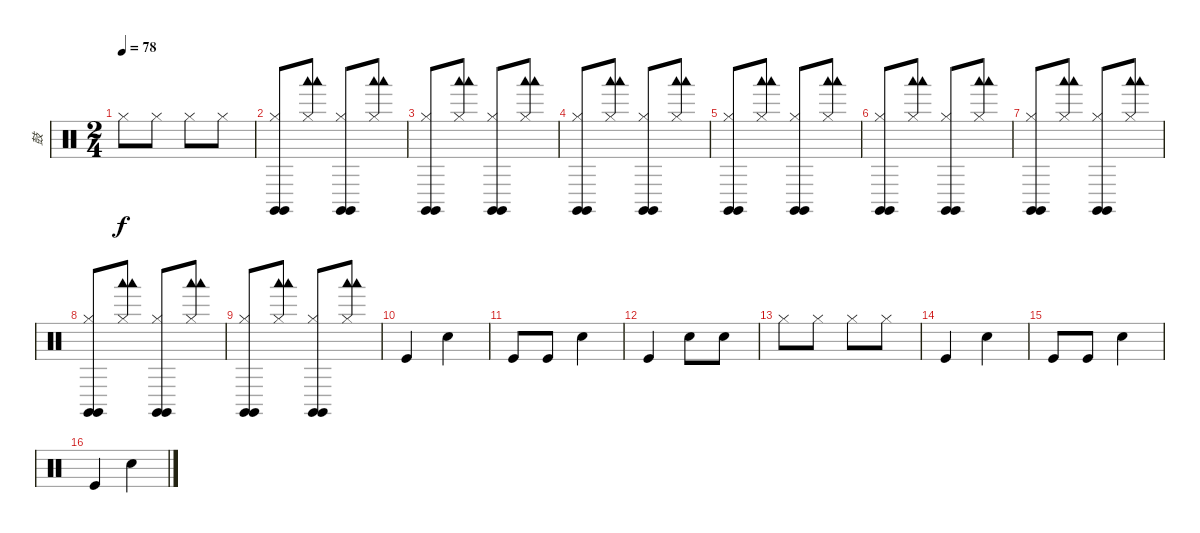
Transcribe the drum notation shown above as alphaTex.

\track ("鼓" "鼓") {instrument percussion}
\staff {score}
\articulation defaults
\ts (2 4)
\tempo 78
\clef neutral
\ks c "Hi-Hat (closed)".8{dy f} "Hi-Hat (closed)".8 "Hi-Hat (closed)".8 "Hi-Hat (closed)".8
|
("Hi-Hat (closed)" "Claves (hit)" "Claves (hit)").8 ("Hi-Hat (closed)" "Woodblock low (hit)" "Woodblock low (hit)").8 ("Hi-Hat (closed)" "Claves (hit)" "Claves (hit)").8 ("Hi-Hat (closed)" "Woodblock low (hit)" "Woodblock low (hit)").8 |
("Hi-Hat (closed)" "Claves (hit)" "Claves (hit)").8 ("Hi-Hat (closed)" "Woodblock low (hit)" "Woodblock low (hit)").8 ("Hi-Hat (closed)" "Claves (hit)" "Claves (hit)").8 ("Hi-Hat (closed)" "Woodblock low (hit)" "Woodblock low (hit)").8 |
("Hi-Hat (closed)" "Claves (hit)" "Claves (hit)").8 ("Hi-Hat (closed)" "Woodblock low (hit)" "Woodblock low (hit)").8 ("Hi-Hat (closed)" "Claves (hit)" "Claves (hit)").8 ("Hi-Hat (closed)" "Woodblock low (hit)" "Woodblock low (hit)").8 |
("Hi-Hat (closed)" "Claves (hit)" "Claves (hit)").8 ("Hi-Hat (closed)" "Woodblock low (hit)" "Woodblock low (hit)").8 ("Hi-Hat (closed)" "Claves (hit)" "Claves (hit)").8 ("Hi-Hat (closed)" "Woodblock low (hit)" "Woodblock low (hit)").8 |
("Hi-Hat (closed)" "Claves (hit)" "Claves (hit)").8 ("Hi-Hat (closed)" "Woodblock low (hit)" "Woodblock low (hit)").8 ("Hi-Hat (closed)" "Claves (hit)" "Claves (hit)").8 ("Hi-Hat (closed)" "Woodblock low (hit)" "Woodblock low (hit)").8 |
("Hi-Hat (closed)" "Claves (hit)" "Claves (hit)").8 ("Hi-Hat (closed)" "Woodblock low (hit)" "Woodblock low (hit)").8 ("Hi-Hat (closed)" "Claves (hit)" "Claves (hit)").8 ("Hi-Hat (closed)" "Woodblock low (hit)" "Woodblock low (hit)").8 |
("Hi-Hat (closed)" "Claves (hit)" "Claves (hit)").8 ("Hi-Hat (closed)" "Woodblock low (hit)" "Woodblock low (hit)").8 ("Hi-Hat (closed)" "Claves (hit)" "Claves (hit)").8 ("Hi-Hat (closed)" "Woodblock low (hit)" "Woodblock low (hit)").8 |
("Hi-Hat (closed)" "Claves (hit)" "Claves (hit)").8 ("Hi-Hat (closed)" "Woodblock low (hit)" "Woodblock low (hit)").8 ("Hi-Hat (closed)" "Claves (hit)" "Claves (hit)").8 ("Hi-Hat (closed)" "Woodblock low (hit)" "Woodblock low (hit)").8 |
"Kick (hit)".4 "Snare (hit) 2".4 |
"Kick (hit)".8 "Kick (hit)".8 "Snare (hit) 2".4 |
"Kick (hit)".4 "Snare (hit) 2".8 "Snare (hit) 2".8 |
"Hi-Hat (closed)".8 "Hi-Hat (closed)".8 "Hi-Hat (closed)".8 "Hi-Hat (closed)".8 |
"Kick (hit)".4 "Metronome (bell)".4 |
"Kick (hit)".8 "Kick (hit)".8 "Metronome (bell)".4 |
"Kick (hit)".4 "Metronome (bell)".4
